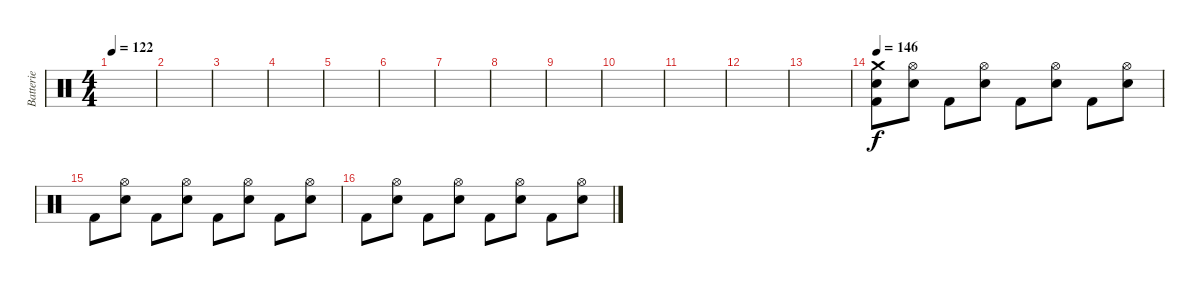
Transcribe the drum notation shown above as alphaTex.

\track ("Batterie" "Batterie") {instrument percussion}
\staff {score}
\articulation defaults
\ts (4 4)
\tempo 122
\clef neutral
\ks c
|
|
|
|
|
|
|
|
|
|
|
|
|
\tempo 146
("Kick (hit) 2" "Crash medium (hit)" "Electric Snare (hit)").8 ("Electric Snare (hit)" "Hi-Hat (open)").8 "Kick (hit) 2".8 ("Electric Snare (hit)" "Hi-Hat (open)").8 "Kick (hit) 2".8 ("Electric Snare (hit)" "Hi-Hat (open)").8 "Kick (hit) 2".8 ("Electric Snare (hit)" "Hi-Hat (open)").8 |
"Kick (hit) 2".8 ("Electric Snare (hit)" "Hi-Hat (open)").8 "Kick (hit) 2".8 ("Electric Snare (hit)" "Hi-Hat (open)").8 "Kick (hit) 2".8 ("Electric Snare (hit)" "Hi-Hat (open)").8 "Kick (hit) 2".8 ("Electric Snare (hit)" "Hi-Hat (open)").8 |
"Kick (hit) 2".8 ("Electric Snare (hit)" "Hi-Hat (open)").8 "Kick (hit) 2".8 ("Electric Snare (hit)" "Hi-Hat (open)").8 "Kick (hit) 2".8 ("Electric Snare (hit)" "Hi-Hat (open)").8 "Kick (hit) 2".8 ("Electric Snare (hit)" "Hi-Hat (open)").8
